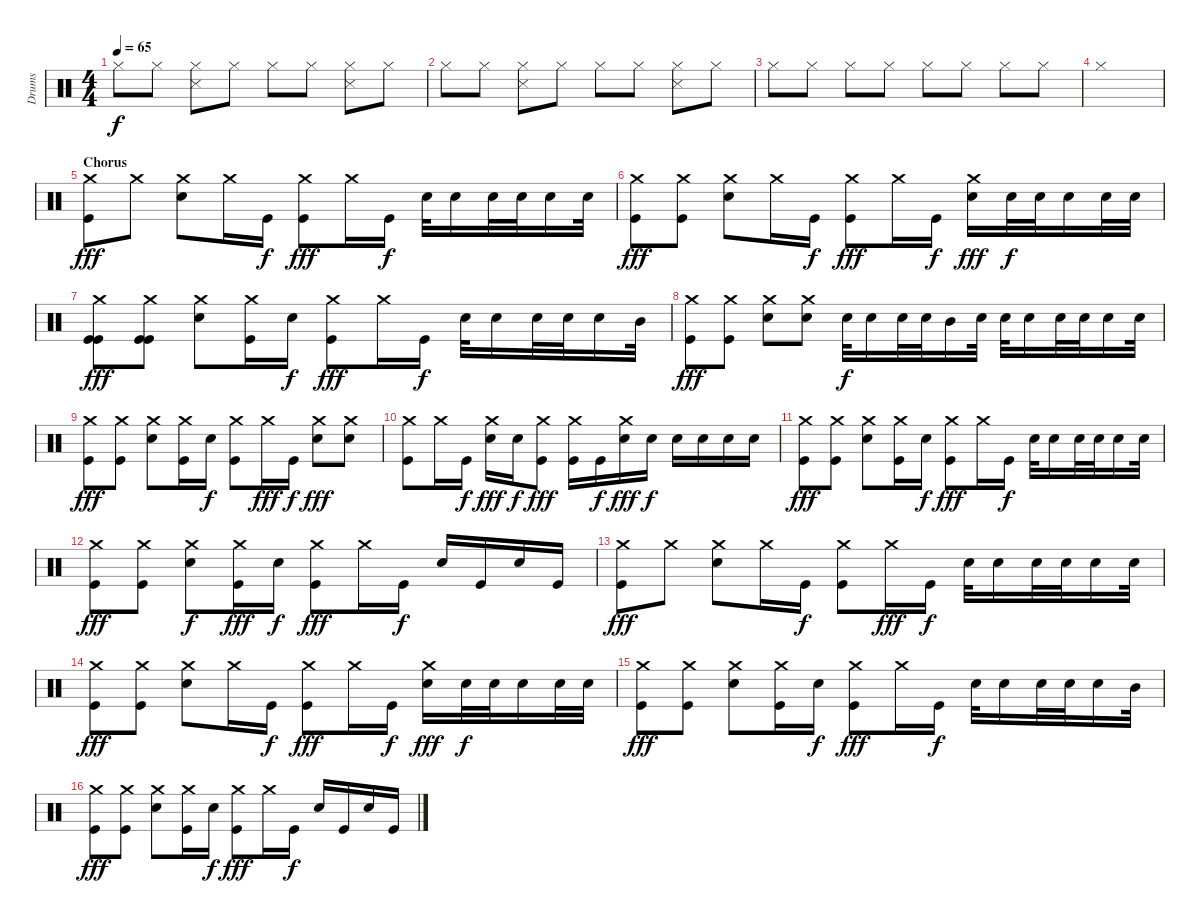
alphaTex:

\track ("Drums" "Drums") {instrument percussion}
\staff {score}
\articulation defaults
\ts (4 4)
\tempo 65
\clef neutral
\ks c "Hi-Hat (closed)".8{dy f} "Hi-Hat (closed)".8
("Hi-Hat (closed)" "Snare (side stick) 3").8 "Hi-Hat (closed)".8 "Hi-Hat (closed)".8 "Hi-Hat (closed)".8 ("Hi-Hat (closed)" "Snare (side stick) 3").8 "Hi-Hat (closed)".8 |
"Hi-Hat (closed)".8 "Hi-Hat (closed)".8 ("Hi-Hat (closed)" "Snare (side stick) 3").8 "Hi-Hat (closed)".8 "Hi-Hat (closed)".8 "Hi-Hat (closed)".8 ("Hi-Hat (closed)" "Snare (side stick) 3").8 "Hi-Hat (closed)".8 |
"Hi-Hat (closed)".8 "Hi-Hat (closed)".8 "Hi-Hat (closed)".8 "Hi-Hat (closed)".8 "Hi-Hat (closed)".8 "Hi-Hat (closed)".8 "Hi-Hat (closed)".8 "Hi-Hat (closed)".8 |
"Hi-Hat (closed)".1 |
\section ("" "Chorus")
("Crash medium (hit)" "Kick (hit)").8{dy fff} "Crash medium (hit)".8 ("Crash medium (hit)" "Electric Snare (hit)").8 "Crash medium (hit)".16 "Kick (hit)".16{dy f} ("Crash medium (hit)" "Kick (hit)").8{dy fff} "Crash medium (hit)".16 "Kick (hit)".16{dy f} "Electric Snare (hit)".32 "Electric Snare (hit)".16 "Electric Snare (hit)".32 "Electric Snare (hit)".32 "Electric Snare (hit)".16 "Electric Snare (hit)".32 |
("Crash medium (hit)" "Kick (hit)").8{dy fff} ("Crash medium (hit)" "Kick (hit)").8 ("Crash medium (hit)" "Electric Snare (hit)").8 "Crash medium (hit)".16 "Kick (hit)".16{dy f} ("Crash medium (hit)" "Kick (hit)").8{dy fff} "Crash medium (hit)".16 "Kick (hit)".16{dy f} ("Crash medium (hit)" "Electric Snare (hit)").16{dy fff} "Electric Snare (hit)".32{dy f} "Electric Snare (hit)".32 "Electric Snare (hit)".16 "Electric Snare (hit)".32 "Electric Snare (hit)".32 |
("Crash medium (hit)" "Kick (hit)" "Kick (hit)").8{dy fff} ("Crash medium (hit)" "Kick (hit)" "Kick (hit)").8 ("Crash medium (hit)" "Electric Snare (hit)").8 ("Crash medium (hit)" "Kick (hit)").16 "Electric Snare (hit)".16{dy f} ("Crash medium (hit)" "Kick (hit)").8{dy fff} "Crash medium (hit)".16 "Kick (hit)".16{dy f} "Electric Snare (hit)".32 "Electric Snare (hit)".16 "Electric Snare (hit)".32 "Electric Snare (hit)".32 "Electric Snare (hit)".16 "Mid Tom (hit)".32 |
("Crash medium (hit)" "Kick (hit)").8{dy fff} ("Crash medium (hit)" "Kick (hit)").8 ("Crash medium (hit)" "Electric Snare (hit)").8 ("Crash medium (hit)" "Electric Snare (hit)").8 "Electric Snare (hit)".32{dy f} "Electric Snare (hit)".16 "Electric Snare (hit)".32 "Electric Snare (hit)".32 "Mid Tom (hit)".16 "Electric Snare (hit)".32 "Electric Snare (hit)".32 "Electric Snare (hit)".16 "Electric Snare (hit)".32 "Electric Snare (hit)".32 "Electric Snare (hit)".16 "Electric Snare (hit)".32 |
("Crash medium (hit)" "Kick (hit)").8{dy fff} ("Crash medium (hit)" "Kick (hit)").8 ("Crash medium (hit)" "Electric Snare (hit)").8 ("Crash medium (hit)" "Kick (hit)").16 "Electric Snare (hit)".16{dy f} ("Crash medium (hit)" "Kick (hit)").8 "Crash medium (hit)".16{dy fff} "Kick (hit)".16{dy f} ("Crash medium (hit)" "Electric Snare (hit)").8{dy fff} ("Crash medium (hit)" "Electric Snare (hit)").8 |
("Crash medium (hit)" "Kick (hit)").8 "Crash medium (hit)".16 "Kick (hit)".16{dy f} ("Crash medium (hit)" "Electric Snare (hit)").16{dy fff} "Electric Snare (hit)".16{dy f} ("Crash medium (hit)" "Kick (hit)").8{dy fff} ("Crash medium (hit)" "Kick (hit)").16 "Kick (hit)".16{dy f} ("Crash medium (hit)" "Electric Snare (hit)").16{dy fff} "Electric Snare (hit)".16{dy f} "Electric Snare (hit)".16 "Electric Snare (hit)".16 "Electric Snare (hit)".16 "Electric Snare (hit)".16 |
("Crash medium (hit)" "Kick (hit)").8{dy fff} ("Crash medium (hit)" "Kick (hit)").8 ("Crash medium (hit)" "Electric Snare (hit)").8 ("Crash medium (hit)" "Kick (hit)").16 "Electric Snare (hit)".16{dy f} ("Crash medium (hit)" "Kick (hit)").8{dy fff} "Crash medium (hit)".16 "Kick (hit)".16{dy f} "Electric Snare (hit)".32 "Electric Snare (hit)".16 "Electric Snare (hit)".32 "Electric Snare (hit)".32 "Electric Snare (hit)".16 "Electric Snare (hit)".32 |
("Crash medium (hit)" "Kick (hit)").8{dy fff} ("Crash medium (hit)" "Kick (hit)").8 ("Crash medium (hit)" "Electric Snare (hit)").8{dy f} ("Crash medium (hit)" "Kick (hit)").16{dy fff} "Electric Snare (hit)".16{dy f} ("Crash medium (hit)" "Kick (hit)").8{dy fff} "Crash medium (hit)".16 "Kick (hit)".16{dy f} "Electric Snare (hit)".16 "Kick (hit)".16 "Electric Snare (hit)".16 "Kick (hit)".16 |
("Crash medium (hit)" "Kick (hit)").8{dy fff} "Crash medium (hit)".8 ("Crash medium (hit)" "Electric Snare (hit)").8 "Crash medium (hit)".16 "Kick (hit)".16{dy f} ("Crash medium (hit)" "Kick (hit)").8 "Crash medium (hit)".16{dy fff} "Kick (hit)".16{dy f} "Electric Snare (hit)".32 "Electric Snare (hit)".16 "Electric Snare (hit)".32 "Electric Snare (hit)".32 "Electric Snare (hit)".16 "Electric Snare (hit)".32 |
("Crash medium (hit)" "Kick (hit)").8{dy fff} ("Crash medium (hit)" "Kick (hit)").8 ("Crash medium (hit)" "Electric Snare (hit)").8 "Crash medium (hit)".16 "Kick (hit)".16{dy f} ("Crash medium (hit)" "Kick (hit)").8{dy fff} "Crash medium (hit)".16 "Kick (hit)".16{dy f} ("Crash medium (hit)" "Electric Snare (hit)").16{dy fff} "Electric Snare (hit)".32{dy f} "Electric Snare (hit)".32 "Electric Snare (hit)".16 "Electric Snare (hit)".32 "Electric Snare (hit)".32 |
("Crash medium (hit)" "Kick (hit)").8{dy fff} ("Crash medium (hit)" "Kick (hit)").8 ("Crash medium (hit)" "Electric Snare (hit)").8 ("Crash medium (hit)" "Kick (hit)").16 "Electric Snare (hit)".16{dy f} ("Crash medium (hit)" "Kick (hit)").8{dy fff} "Crash medium (hit)".16 "Kick (hit)".16{dy f} "Electric Snare (hit)".32 "Electric Snare (hit)".16 "Electric Snare (hit)".32 "Electric Snare (hit)".32 "Electric Snare (hit)".16 "Mid Tom (hit)".32 |
("Crash medium (hit)" "Kick (hit)").8{dy fff} ("Crash medium (hit)" "Kick (hit)").8 ("Crash medium (hit)" "Electric Snare (hit)").8 ("Crash medium (hit)" "Kick (hit)").16 "Electric Snare (hit)".16{dy f} ("Crash medium (hit)" "Kick (hit)").8{dy fff} "Crash medium (hit)".16 "Kick (hit)".16{dy f} "Electric Snare (hit)".16 "Kick (hit)".16 "Electric Snare (hit)".16 "Kick (hit)".16
